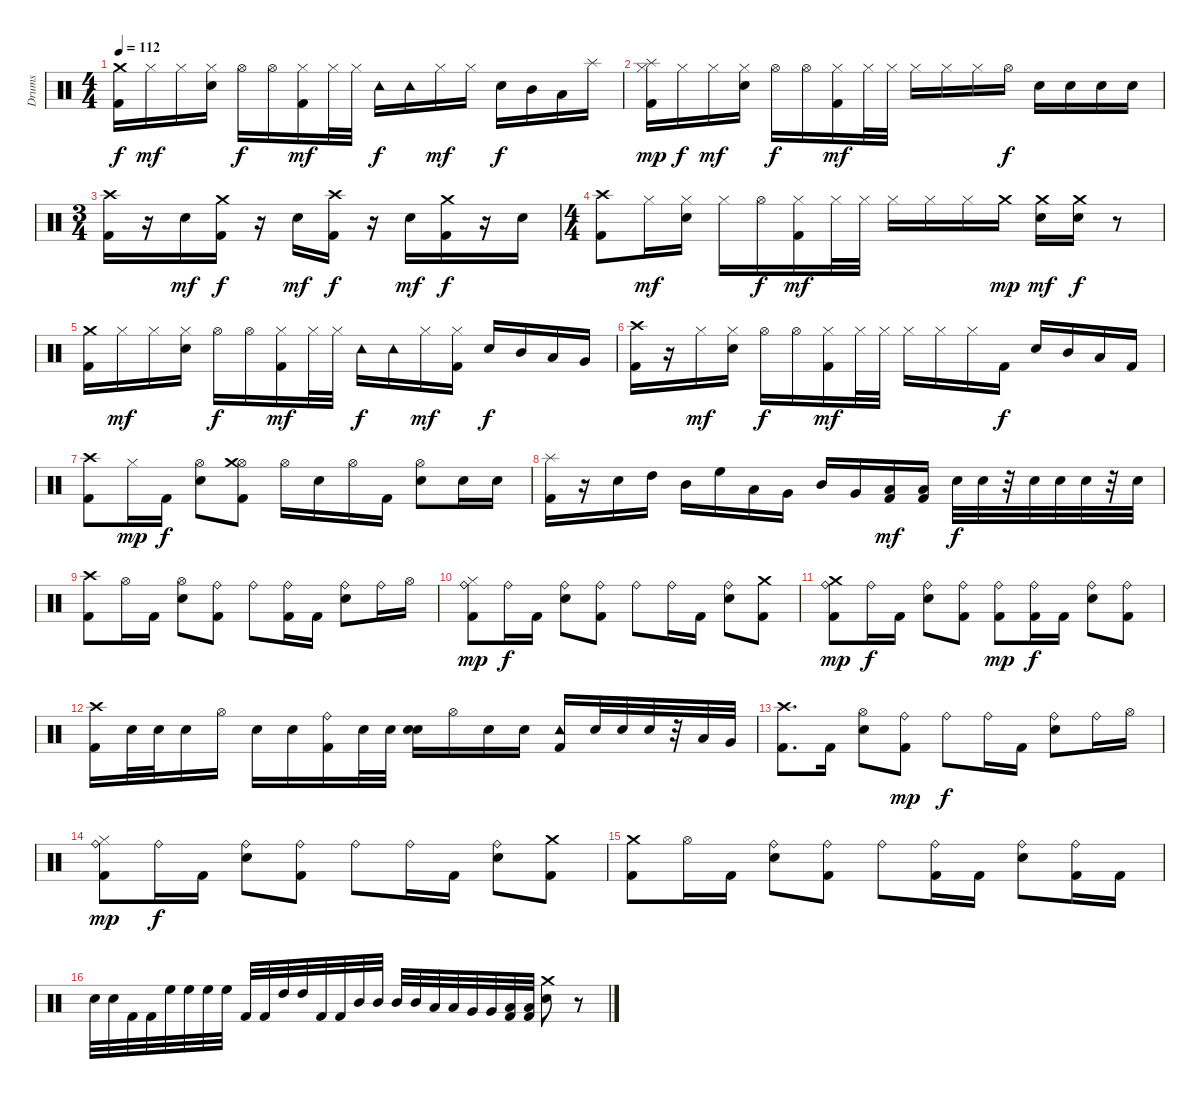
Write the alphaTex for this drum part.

\track ("Drums" "Drums") {instrument percussion}
\staff {score}
\articulation defaults
\ts (4 4)
\tempo 112
\clef neutral
\ks c
("Kick (hit) 2" "Crash medium (hit)").16{dy f} "Hi-Hat (closed)".16{dy mf} "Hi-Hat (closed)".16 ("Electric Snare (hit)" "Hi-Hat (closed)").16 "Hi-Hat (open)".16{dy f} "Hi-Hat (open)".16 ("Kick (hit) 2" "Hi-Hat (closed)").16{dy mf} "Hi-Hat (closed)".32 "Hi-Hat (closed)".32 "Tambourine (hit)".16{dy f} "Tambourine (hit)".16 "Hi-Hat (closed)".16{dy mf} "Hi-Hat (closed)".16 "Electric Snare (hit)".16{dy f} "Mid Tom (hit)".16 "Low Tom (hit)".16 "Splash (hit)".16 |
("Kick (hit) 2" "Splash (hit)" "Hi-Hat (closed)").16{dy mp} "Hi-Hat (closed)".16{dy f} "Hi-Hat (closed)".16{dy mf} ("Electric Snare (hit)" "Hi-Hat (closed)").16 "Hi-Hat (open)".16{dy f} "Hi-Hat (open)".16 ("Kick (hit) 2" "Hi-Hat (closed)").16{dy mf} "Hi-Hat (closed)".32 "Hi-Hat (closed)".32 "Hi-Hat (closed)".16 "Hi-Hat (closed)".16 "Hi-Hat (closed)".16 "Hi-Hat (open)".16{dy f} "Electric Snare (hit)".16 "Electric Snare (hit)".16 "Electric Snare (hit)".16 "Electric Snare (hit)".16 |
\ts (3 4)
("Kick (hit) 2" "Crash high (hit)").16 r.16 "Electric Snare (hit)".16{dy mf} ("Kick (hit) 2" "Crash medium (hit)").16{dy f} r.16 "Electric Snare (hit)".16{dy mf} ("Kick (hit) 2" "Crash high (hit)").16{dy f} r.16 "Electric Snare (hit)".16{dy mf} ("Kick (hit) 2" "Crash medium (hit)").16{dy f} r.16 "Electric Snare (hit)".16 |
\ts (4 4)
("Kick (hit) 2" "Crash high (hit)").8 "Hi-Hat (closed)".16{dy mf} ("Electric Snare (hit)" "Hi-Hat (closed)").16 "Hi-Hat (closed)".16 "Hi-Hat (open)".16{dy f} ("Kick (hit) 2" "Hi-Hat (closed)").16{dy mf} "Hi-Hat (closed)".32 "Hi-Hat (closed)".32 "Hi-Hat (closed)".16 "Hi-Hat (closed)".16 "Hi-Hat (closed)".16 "Crash medium (hit)".16{dy mp} ("Electric Snare (hit)" "Crash medium (hit)").16{dy mf} ("Electric Snare (hit)" "Crash medium (hit)").16{dy f} r.8 |
("Crash medium (hit)" "Kick (hit) 2").16 "Hi-Hat (closed)".16{dy mf} "Hi-Hat (closed)".16 ("Electric Snare (hit)" "Hi-Hat (closed)").16 "Hi-Hat (open)".16{dy f} "Hi-Hat (open)".16 ("Kick (hit) 2" "Hi-Hat (closed)").16{dy mf} "Hi-Hat (closed)".32 "Hi-Hat (closed)".32 "Tambourine (hit)".16{dy f} "Tambourine (hit)".16 "Hi-Hat (closed)".16{dy mf} ("Kick (hit) 2" "Hi-Hat (closed)").16 "Electric Snare (hit)".16{dy f} "Mid Tom (hit)".16 "Low Tom (hit)".16 "Very Low Tom (hit)".16 |
("Crash high (hit)" "Kick (hit) 2").16 r.16 "Hi-Hat (closed)".16{dy mf} ("Electric Snare (hit)" "Hi-Hat (closed)").16 "Hi-Hat (open)".16{dy f} "Hi-Hat (open)".16 ("Kick (hit) 2" "Hi-Hat (closed)").16{dy mf} "Hi-Hat (closed)".32 "Hi-Hat (closed)".32 "Hi-Hat (closed)".16 "Hi-Hat (closed)".16 "Hi-Hat (closed)".16 "Kick (hit) 2".16{dy f} "Electric Snare (hit)".16 "Mid Tom (hit)".16 "Low Tom (hit)".16 "Kick (hit) 2".16 |
("Crash high (hit)" "Kick (hit) 2").8 "Hi-Hat (closed)".16{dy mp} "Kick (hit) 2".16{dy f} ("Electric Snare (hit)" "Hi-Hat (open)").8 ("Hi-Hat (open)" "Kick (hit) 2" "Crash medium (hit)").8 "Hi-Hat (open)".16 "Electric Snare (hit)".16 "Hi-Hat (open)".16 "Kick (hit) 2".16 ("Electric Snare (hit)" "Hi-Hat (open)").8 "Electric Snare (hit)".16 "Electric Snare (hit)".16 |
("Splash (hit)" "Kick (hit) 2").16 r.16 "Electric Snare (hit)".16 "High Tom (hit)".16 "Mid Tom (hit)".16 "High Floor Tom (hit)".16 "Low Tom (hit)".16 "Very Low Tom (hit)".16 "Mid Tom (hit)".16 "Very Low Tom (hit)".16 ("Kick (hit) 2" "Low Floor Tom (hit)").16{dy mf} ("Kick (hit) 2" "Low Floor Tom (hit)").16 "Electric Snare (hit)".32{dy f} "Electric Snare (hit)".32 r.32 "Electric Snare (hit)".32 "Electric Snare (hit)".32 "Electric Snare (hit)".32 r.32 "Electric Snare (hit)".32 |
("Crash high (hit)" "Kick (hit) 2").8 "Hi-Hat (open)".16 "Kick (hit) 2".16 ("Electric Snare (hit)" "Hi-Hat (open)").8 ("Kick (hit) 2" "Ride (bell)").8 "Ride (bell)".8 ("Kick (hit) 2" "Ride (bell)").16 "Kick (hit) 2".16 ("Electric Snare (hit)" "Ride (bell)").8 "Ride (bell)".16 "Hi-Hat (open)".16 |
("Ride (bell)" "Hi-Hat (closed)" "Kick (hit) 2").8{dy mp} "Ride (bell)".16{dy f} "Kick (hit) 2".16 ("Electric Snare (hit)" "Ride (bell)").8 ("Kick (hit) 2" "Ride (bell)").8 "Ride (bell)".8 "Ride (bell)".16 "Kick (hit) 2".16 ("Ride (bell)" "Electric Snare (hit)").8 ("Kick (hit) 2" "Crash medium (hit)").8 |
("Kick (hit) 2" "Ride (bell)" "Crash medium (hit)").8{dy mp} "Ride (bell)".16{dy f} "Kick (hit) 2".16 ("Electric Snare (hit)" "Ride (bell)").8 ("Ride (bell)" "Kick (hit) 2").8 ("Ride (bell)" "Kick (hit) 2").8{dy mp} ("Ride (bell)" "Kick (hit) 2").16{dy f} "Kick (hit) 2".16 ("Ride (bell)" "Electric Snare (hit)").8 ("Kick (hit) 2" "Ride (bell)").8 |
("Crash high (hit)" "Kick (hit) 2").16 "Electric Snare (hit)".32 "Electric Snare (hit)".32 "Electric Snare (hit)".16 "Hi-Hat (open)".16 "Electric Snare (hit)".16 "Electric Snare (hit)".16 ("Kick (hit) 2" "Ride (bell)").16 "Electric Snare (hit)".32 "Electric Snare (hit)".32 ("Electric Snare (hit)" "Electric Snare (hit)").16 "Hi-Hat (open)".16 "Electric Snare (hit)".16 "Electric Snare (hit)".16 ("Kick (hit) 2" "Tambourine (hit)").16 "Electric Snare (hit)".32 "Electric Snare (hit)".32 "Electric Snare (hit)".32 r.32 "Low Tom (hit)".32 "Very Low Tom (hit)".32 |
("Kick (hit) 2" "Crash high (hit)").8{d} "Kick (hit) 2".16 ("Electric Snare (hit)" "Hi-Hat (open)").8 ("Kick (hit) 2" "Ride (bell)").8{dy mp} "Ride (bell)".8{dy f} "Ride (bell)".16 "Kick (hit) 2".16 ("Electric Snare (hit)" "Ride (bell)").8 "Ride (bell)".16 "Hi-Hat (open)".16 |
("Ride (bell)" "Hi-Hat (closed)" "Kick (hit) 2").8{dy mp} "Ride (bell)".16{dy f} "Kick (hit) 2".16 ("Electric Snare (hit)" "Ride (bell)").8 ("Kick (hit) 2" "Ride (bell)").8 "Ride (bell)".8 "Ride (bell)".16 "Kick (hit) 2".16 ("Ride (bell)" "Electric Snare (hit)").8 ("Kick (hit) 2" "Crash medium (hit)").8 |
("Kick (hit) 2" "Crash medium (hit)").8 "Hi-Hat (open)".16 "Kick (hit) 2".16 ("Electric Snare (hit)" "Ride (bell)").8 ("Ride (bell)" "Kick (hit) 2").8 "Ride (bell)".8 ("Kick (hit) 2" "Ride (bell)").16 "Kick (hit) 2".16 ("Ride (bell)" "Electric Snare (hit)").8 ("Ride (bell)" "Kick (hit) 2").16 "Kick (hit) 2".16 |
"Electric Snare (hit)".32 "Electric Snare (hit)".32 "Kick (hit) 2".32 "Kick (hit) 2".32 "High Floor Tom (hit)".32 "High Floor Tom (hit)".32 "High Floor Tom (hit)".32 "High Floor Tom (hit)".32 "Kick (hit) 2".32 "Kick (hit) 2".32 "High Tom (hit)".32 "High Tom (hit)".32 "Kick (hit) 2".32 "Kick (hit) 2".32 "Mid Tom (hit)".32 "Mid Tom (hit)".32 "Mid Tom (hit)".32 "Mid Tom (hit)".32 "Low Tom (hit)".32 "Low Tom (hit)".32 "Very Low Tom (hit)".32 "Very Low Tom (hit)".32 ("Low Floor Tom (hit)" "Kick (hit) 2").32 ("Low Floor Tom (hit)" "Kick (hit) 2").32 ("Electric Snare (hit)" "Crash medium (hit)").8 r.8
